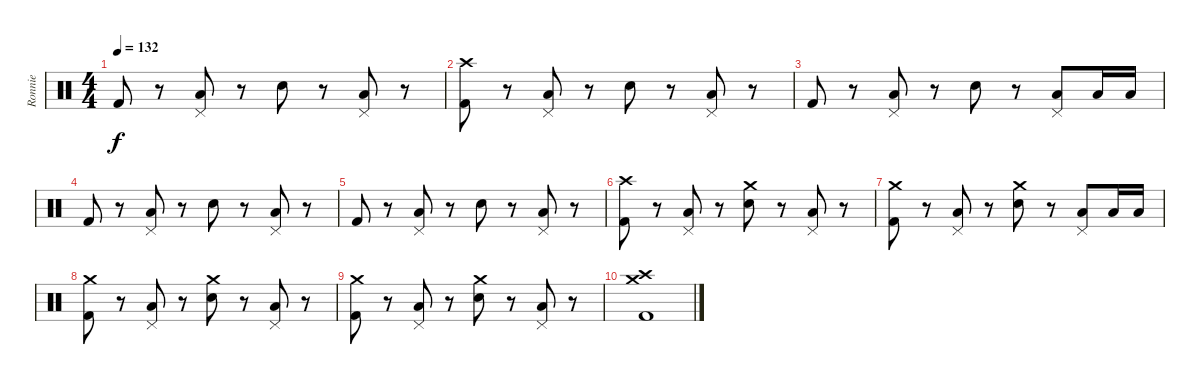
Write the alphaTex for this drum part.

\track ("Ronnie" "Ronnie") {instrument percussion}
\staff {score}
\articulation defaults
\ts (4 4)
\tempo 132
\clef neutral
\ks c "Kick (hit) 2".8{dy f}
r.8 ("Pedal Hi-Hat (hit)" "Low Floor Tom (hit)").8 r.8 "Electric Snare (hit)".8 r.8 ("Pedal Hi-Hat (hit)" "Low Floor Tom (hit)").8 r.8 |
("Crash high (hit)" "Kick (hit) 2").8 r.8 ("Pedal Hi-Hat (hit)" "Low Floor Tom (hit)").8 r.8 "Electric Snare (hit)".8 r.8 ("Pedal Hi-Hat (hit)" "Low Floor Tom (hit)").8 r.8 |
"Kick (hit) 2".8 r.8 ("Pedal Hi-Hat (hit)" "Low Floor Tom (hit)").8 r.8 "Electric Snare (hit)".8 r.8 ("Pedal Hi-Hat (hit)" "Low Floor Tom (hit)").8 "Low Floor Tom (hit)".16 "Low Floor Tom (hit)".16 |
"Kick (hit) 2".8 r.8 ("Pedal Hi-Hat (hit)" "Low Floor Tom (hit)").8 r.8 "Electric Snare (hit)".8 r.8 ("Pedal Hi-Hat (hit)" "Low Floor Tom (hit)").8 r.8 |
"Kick (hit) 2".8 r.8 ("Pedal Hi-Hat (hit)" "Low Floor Tom (hit)").8 r.8 "Electric Snare (hit)".8 r.8 ("Pedal Hi-Hat (hit)" "Low Floor Tom (hit)").8 r.8 |
("Crash high (hit)" "Kick (hit) 2").8 r.8 ("Pedal Hi-Hat (hit)" "Low Floor Tom (hit)").8 r.8 ("Crash medium (hit)" "Electric Snare (hit)").8 r.8 ("Pedal Hi-Hat (hit)" "Low Floor Tom (hit)").8 r.8 |
("Crash medium (hit)" "Kick (hit) 2").8 r.8 ("Pedal Hi-Hat (hit)" "Low Floor Tom (hit)").8 r.8 ("Crash medium (hit)" "Electric Snare (hit)").8 r.8 ("Pedal Hi-Hat (hit)" "Low Floor Tom (hit)").8 "Low Floor Tom (hit)".16 "Low Floor Tom (hit)".16 |
("Crash medium (hit)" "Kick (hit) 2").8 r.8 ("Pedal Hi-Hat (hit)" "Low Floor Tom (hit)").8 r.8 ("Crash medium (hit)" "Electric Snare (hit)").8 r.8 ("Pedal Hi-Hat (hit)" "Low Floor Tom (hit)").8 r.8 |
("Crash medium (hit)" "Kick (hit) 2").8 r.8 ("Pedal Hi-Hat (hit)" "Low Floor Tom (hit)").8 r.8 ("Crash medium (hit)" "Electric Snare (hit)").8 r.8 ("Pedal Hi-Hat (hit)" "Low Floor Tom (hit)").8 r.8 |
("Crash high (hit)" "Kick (hit) 2" "Crash medium (hit)").1
